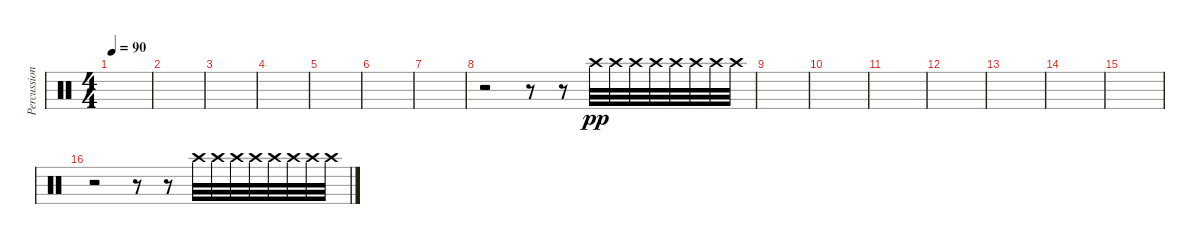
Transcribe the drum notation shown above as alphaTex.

\track ("Percussion" "Percussion") {instrument percussion}
\staff {score}
\articulation defaults
\ts (4 4)
\tempo 90
\clef neutral
\ks c
|
|
|
|
|
|
|
r.2 r.8 r.8 "Crash high (hit)".32{dy pp} "Crash high (hit)".32 "Crash high (hit)".32 "Crash high (hit)".32 "Crash high (hit)".32 "Crash high (hit)".32 "Crash high (hit)".32 "Crash high (hit)".32 |
|
|
|
|
|
|
|
r.2 r.8 r.8 "Crash high (hit)".32 "Crash high (hit)".32 "Crash high (hit)".32 "Crash high (hit)".32 "Crash high (hit)".32 "Crash high (hit)".32 "Crash high (hit)".32 "Crash high (hit)".32
